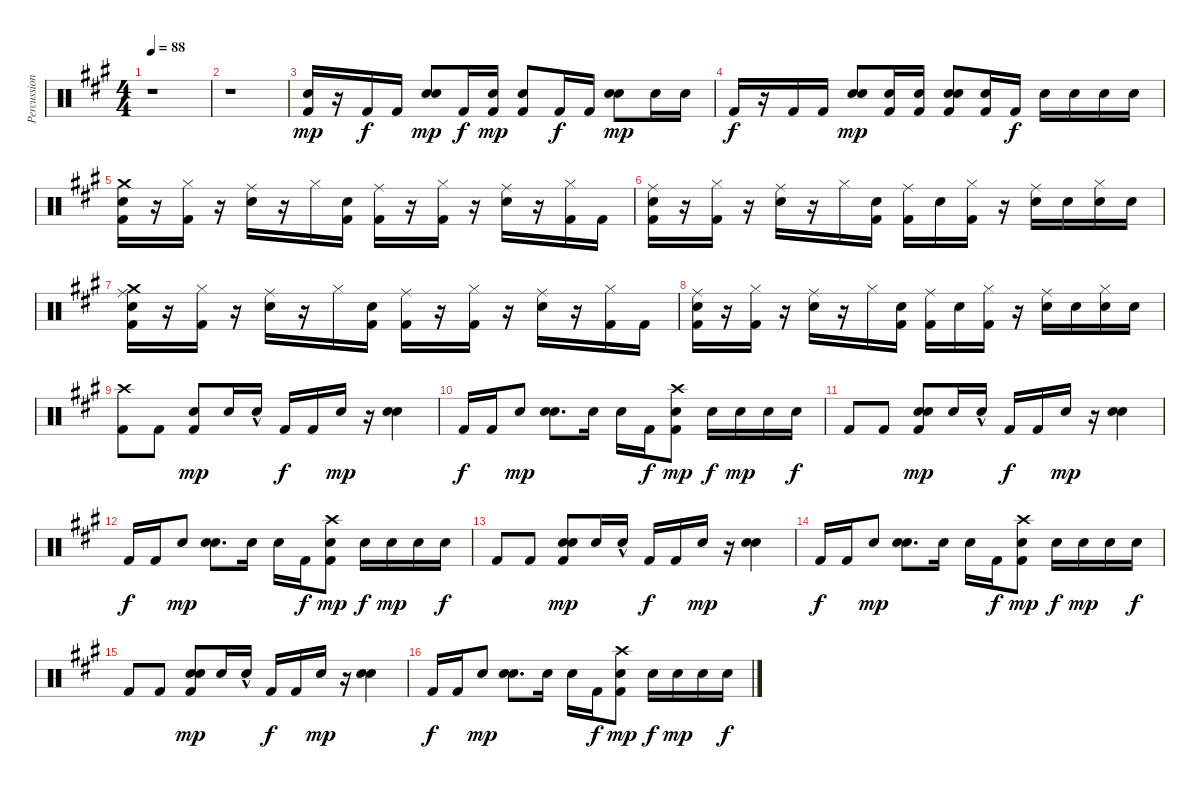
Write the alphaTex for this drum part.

\track ("Percussion" "Percussion") {instrument percussion}
\staff {score}
\articulation defaults
\ts (4 4)
\tempo 88
\clef neutral
\ks f#minor
r.1{dy mp} |
r.1 |
("Kick (hit) 2" "Hand Clap (hit)").16 r.16 "Kick (hit) 2".16{dy f} "Kick (hit) 2".16 ("Electric Snare (hit)" "Hand Clap (hit)").8{dy mp} "Kick (hit) 2".16{dy f} ("Hand Clap (hit)" "Kick (hit) 2").16{dy mp} ("Kick (hit) 2" "Hand Clap (hit)").8 "Kick (hit) 2".16{dy f} "Kick (hit) 2".16 ("Electric Snare (hit)" "Hand Clap (hit)").8{dy mp} "Hand Clap (hit)".16 "Hand Clap (hit)".16 |
"Kick (hit) 2".16{dy f} r.16 "Kick (hit) 2".16 "Kick (hit) 2".16 ("Electric Snare (hit)" "Hand Clap (hit)").8{dy mp} ("Hand Clap (hit)" "Kick (hit) 2").16 ("Hand Clap (hit)" "Kick (hit) 2").16 ("Electric Snare (hit)" "Hand Clap (hit)" "Kick (hit) 2").8 ("Hand Clap (hit)" "Kick (hit) 2").16 "Kick (hit) 2".16{dy f} "Snare (hit) 2".16 "Snare (hit) 2".16 "Snare (hit) 2".16 "Snare (hit) 2".16 |
("Crash medium (hit)" "Snare (hit) 2" "Kick (hit) 2").16 r.16 ("Kick (hit) 2" "Hi-Hat (closed)").16 r.16 ("Ride (middle)" "Snare (hit) 2").16 r.16 "Hi-Hat (closed)".16 ("Snare (hit) 2" "Kick (hit) 2").16 ("Ride (middle)" "Kick (hit) 2").16 r.16 ("Hi-Hat (closed)" "Kick (hit) 2").16 r.16 ("Snare (hit) 2" "Ride (middle)").16 r.16 ("Kick (hit) 2" "Hi-Hat (closed)").16 "Kick (hit) 2".16 |
("Ride (middle)" "Snare (hit) 2" "Kick (hit) 2").16 r.16 ("Hi-Hat (closed)" "Kick (hit) 2").16 r.16 ("Ride (middle)" "Snare (hit) 2").16 r.16 "Hi-Hat (closed)".16 ("Snare (hit) 2" "Kick (hit) 2").16 ("Kick (hit) 2" "Ride (middle)").16 "Snare (hit) 2".16 ("Hi-Hat (closed)" "Kick (hit) 2").16 r.16 ("Snare (hit) 2" "Ride (middle)").16 "Snare (hit) 2".16 ("Snare (hit) 2" "Hi-Hat (closed)").16 "Snare (hit) 2".16 |
("Ride (middle)" "Kick (hit) 2" "Crash medium (hit)" "Snare (hit) 2").16 r.16 ("Kick (hit) 2" "Hi-Hat (closed)").16 r.16 ("Ride (middle)" "Snare (hit) 2").16 r.16 "Hi-Hat (closed)".16 ("Snare (hit) 2" "Kick (hit) 2").16 ("Kick (hit) 2" "Ride (middle)").16 r.16 ("Hi-Hat (closed)" "Kick (hit) 2").16 r.16 ("Snare (hit) 2" "Ride (middle)").16 r.16 ("Kick (hit) 2" "Hi-Hat (closed)").16 "Kick (hit) 2".16 |
("Ride (middle)" "Kick (hit) 2" "Snare (hit) 2").16 r.16 ("Hi-Hat (closed)" "Kick (hit) 2").16 r.16 ("Ride (middle)" "Snare (hit) 2").16 r.16 "Hi-Hat (closed)".16 ("Snare (hit) 2" "Kick (hit) 2").16 ("Ride (middle)" "Kick (hit) 2").16 "Snare (hit) 2".16 ("Hi-Hat (closed)" "Kick (hit) 2").16 r.16 ("Snare (hit) 2" "Ride (middle)").16 "Snare (hit) 2".16 ("Snare (hit) 2" "Hi-Hat (closed)").16 "Snare (hit) 2".16 |
("Kick (hit) 2" "Crash high (hit)").8 "Kick (hit) 2".8 ("Kick (hit) 2" "Hand Clap (hit)").8{dy mp} "Hand Clap (hit)".16 "Hand Clap (hit)"{hac}.16 "Kick (hit) 2".16{dy f} "Kick (hit) 2".16 "Hand Clap (hit)".16{dy mp} r.16 ("Electric Snare (hit)" "Hand Clap (hit)").4 |
"Kick (hit) 2".16{dy f} "Kick (hit) 2".16 "Hand Clap (hit)".8{dy mp} ("Electric Snare (hit)" "Hand Clap (hit)").8{d} "Hand Clap (hit)".16 "Hand Clap (hit)".16 "Kick (hit) 2".16{dy f} ("Hand Clap (hit)" "Crash high (hit)" "Kick (hit) 2").8{dy mp} "Electric Snare (hit)".16{dy f} "Hand Clap (hit)".16{dy mp} "Hand Clap (hit)".16 "Electric Snare (hit)".16{dy f} |
"Kick (hit) 2".8 "Kick (hit) 2".8 ("Electric Snare (hit)" "Kick (hit) 2" "Hand Clap (hit)").8{dy mp} "Hand Clap (hit)".16 "Hand Clap (hit)"{hac}.16 "Kick (hit) 2".16{dy f} "Kick (hit) 2".16 "Hand Clap (hit)".16{dy mp} r.16 ("Electric Snare (hit)" "Hand Clap (hit)").4 |
"Kick (hit) 2".16{dy f} "Kick (hit) 2".16 "Hand Clap (hit)".8{dy mp} ("Electric Snare (hit)" "Hand Clap (hit)").8{d} "Hand Clap (hit)".16 "Hand Clap (hit)".16 "Kick (hit) 2".16{dy f} ("Hand Clap (hit)" "Crash high (hit)" "Kick (hit) 2").8{dy mp} "Electric Snare (hit)".16{dy f} "Hand Clap (hit)".16{dy mp} "Hand Clap (hit)".16 "Electric Snare (hit)".16{dy f} |
"Kick (hit) 2".8 "Kick (hit) 2".8 ("Electric Snare (hit)" "Kick (hit) 2" "Hand Clap (hit)").8{dy mp} "Hand Clap (hit)".16 "Hand Clap (hit)"{hac}.16 "Kick (hit) 2".16{dy f} "Kick (hit) 2".16 "Hand Clap (hit)".16{dy mp} r.16 ("Electric Snare (hit)" "Hand Clap (hit)").4 |
"Kick (hit) 2".16{dy f} "Kick (hit) 2".16 "Hand Clap (hit)".8{dy mp} ("Electric Snare (hit)" "Hand Clap (hit)").8{d} "Hand Clap (hit)".16 "Hand Clap (hit)".16 "Kick (hit) 2".16{dy f} ("Hand Clap (hit)" "Crash high (hit)" "Kick (hit) 2").8{dy mp} "Electric Snare (hit)".16{dy f} "Hand Clap (hit)".16{dy mp} "Hand Clap (hit)".16 "Electric Snare (hit)".16{dy f} |
"Kick (hit) 2".8 "Kick (hit) 2".8 ("Electric Snare (hit)" "Kick (hit) 2" "Hand Clap (hit)").8{dy mp} "Hand Clap (hit)".16 "Hand Clap (hit)"{hac}.16 "Kick (hit) 2".16{dy f} "Kick (hit) 2".16 "Hand Clap (hit)".16{dy mp} r.16 ("Electric Snare (hit)" "Hand Clap (hit)").4 |
"Kick (hit) 2".16{dy f} "Kick (hit) 2".16 "Hand Clap (hit)".8{dy mp} ("Electric Snare (hit)" "Hand Clap (hit)").8{d} "Hand Clap (hit)".16 "Hand Clap (hit)".16 "Kick (hit) 2".16{dy f} ("Hand Clap (hit)" "Crash high (hit)" "Kick (hit) 2").8{dy mp} "Electric Snare (hit)".16{dy f} "Hand Clap (hit)".16{dy mp} "Hand Clap (hit)".16 "Electric Snare (hit)".16{dy f}
